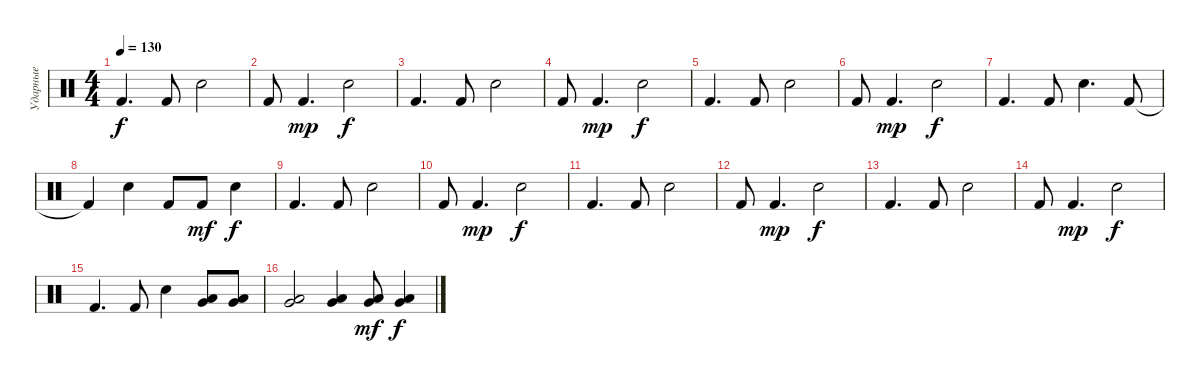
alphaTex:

\track ("Ударные" "Ударные") {instrument percussion}
\staff {score}
\articulation defaults
\ts (4 4)
\tempo 130
\clef neutral
\ks c "Kick (hit) 2".4{d dy f} "Kick (hit) 2".8 "Snare (hit) 2".2
|
"Kick (hit) 2".8 "Kick (hit) 2".4{d dy mp} "Snare (hit) 2".2{dy f} |
"Kick (hit) 2".4{d} "Kick (hit) 2".8 "Snare (hit) 2".2 |
"Kick (hit) 2".8 "Kick (hit) 2".4{d dy mp} "Snare (hit) 2".2{dy f} |
"Kick (hit) 2".4{d} "Kick (hit) 2".8 "Snare (hit) 2".2 |
"Kick (hit) 2".8 "Kick (hit) 2".4{d dy mp} "Snare (hit) 2".2{dy f} |
"Kick (hit) 2".4{d} "Kick (hit) 2".8 "Snare (hit) 2".4{d} "Kick (hit) 2".8 |
"Kick (hit) 2"{t}.4 "Snare (hit) 2".4 "Kick (hit) 2".8 "Kick (hit) 2".8{dy mf} "Snare (hit) 2".4{dy f} |
"Kick (hit) 2".4{d} "Kick (hit) 2".8 "Snare (hit) 2".2 |
"Kick (hit) 2".8 "Kick (hit) 2".4{d dy mp} "Snare (hit) 2".2{dy f} |
"Kick (hit) 2".4{d} "Kick (hit) 2".8 "Snare (hit) 2".2 |
"Kick (hit) 2".8 "Kick (hit) 2".4{d dy mp} "Snare (hit) 2".2{dy f} |
"Kick (hit) 2".4{d} "Kick (hit) 2".8 "Snare (hit) 2".2 |
"Kick (hit) 2".8 "Kick (hit) 2".4{d dy mp} "Snare (hit) 2".2{dy f} |
"Kick (hit) 2".4{d} "Kick (hit) 2".8 "Snare (hit) 2".4 ("Low Floor Tom (hit)" "Very Low Tom (hit)").8 ("Low Floor Tom (hit)" "Very Low Tom (hit)").8 |
("Low Floor Tom (hit)" "Very Low Tom (hit)").2 ("Low Floor Tom (hit)" "Very Low Tom (hit)").4 ("Low Floor Tom (hit)" "Very Low Tom (hit)").8{dy mf} ("Low Floor Tom (hit)" "Very Low Tom (hit)").4{dy f}
